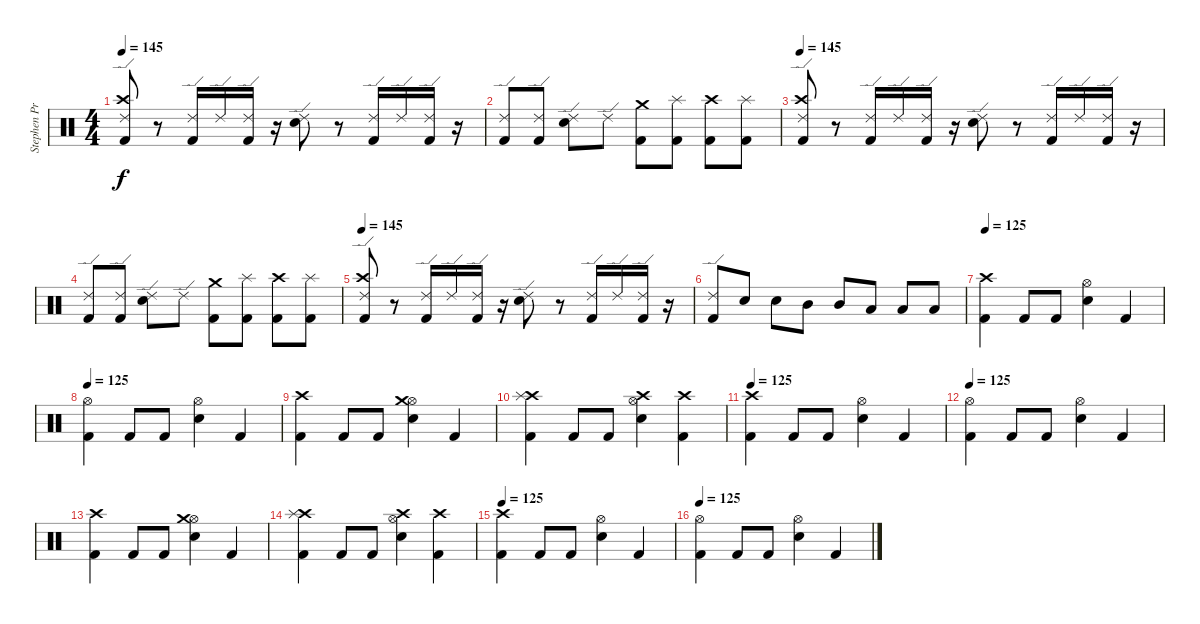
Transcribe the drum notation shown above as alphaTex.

\track ("Stephen Priestly" "Stephen Pr") {instrument percussion}
\staff {score}
\articulation defaults
\ts (4 4)
\tempo 145
\clef neutral
\ks c
("Ride (edge) 2" "Crash high (hit)" "Kick (hit) 2").8{dy f} r.8 ("Ride (edge) 2" "Kick (hit) 2").16 "Ride (edge) 2".16 ("Ride (edge) 2" "Kick (hit) 2").16 r.16 ("Ride (edge) 2" "Snare (hit) 2").8 r.8 ("Ride (edge) 2" "Kick (hit) 2").16 "Ride (edge) 2".16 ("Ride (edge) 2" "Kick (hit) 2").16 r.16 |
("Ride (edge) 2" "Kick (hit) 2").8 ("Ride (edge) 2" "Kick (hit) 2").8 ("Ride (edge) 2" "Snare (hit) 2").8 "Ride (edge) 2".8 ("Crash medium (hit)" "Kick (hit) 2").8 ("Splash (hit)" "Kick (hit) 2").8 ("Crash high (hit)" "Kick (hit) 2").8 ("Splash (hit)" "Kick (hit) 2").8 |
\tempo 145
("Ride (edge) 2" "Crash high (hit)" "Kick (hit) 2").8 r.8 ("Ride (edge) 2" "Kick (hit) 2").16 "Ride (edge) 2".16 ("Ride (edge) 2" "Kick (hit) 2").16 r.16 ("Ride (edge) 2" "Snare (hit) 2").8 r.8 ("Ride (edge) 2" "Kick (hit) 2").16 "Ride (edge) 2".16 ("Ride (edge) 2" "Kick (hit) 2").16 r.16 |
("Ride (edge) 2" "Kick (hit) 2").8 ("Ride (edge) 2" "Kick (hit) 2").8 ("Ride (edge) 2" "Snare (hit) 2").8 "Ride (edge) 2".8 ("Crash medium (hit)" "Kick (hit) 2").8 ("Splash (hit)" "Kick (hit) 2").8 ("Crash high (hit)" "Kick (hit) 2").8 ("Splash (hit)" "Kick (hit) 2").8 |
\tempo 145
("Ride (edge) 2" "Crash high (hit)" "Kick (hit) 2").8 r.8 ("Ride (edge) 2" "Kick (hit) 2").16 "Ride (edge) 2".16 ("Ride (edge) 2" "Kick (hit) 2").16 r.16 ("Ride (edge) 2" "Snare (hit) 2").8 r.8 ("Ride (edge) 2" "Kick (hit) 2").16 "Ride (edge) 2".16 ("Ride (edge) 2" "Kick (hit) 2").16 r.16 |
("Ride (edge) 2" "Kick (hit) 2").8 "Snare (hit) 2".8 "Snare (hit) 2".8 "Mid Tom (hit)".8 "Mid Tom (hit)".8 "Low Tom (hit)".8 "Low Tom (hit)".8 "Low Tom (hit)".8 |
\tempo 125
("Crash high (hit)" "Kick (hit) 2").4 "Kick (hit) 2".8 "Kick (hit) 2".8 ("Hi-Hat (open)" "Snare (hit) 2").4 "Kick (hit) 2".4 |
\tempo 125
("Hi-Hat (open)" "Kick (hit) 2").4 "Kick (hit) 2".8 "Kick (hit) 2".8 ("Hi-Hat (open)" "Snare (hit) 2").4 "Kick (hit) 2".4 |
("Crash high (hit)" "Kick (hit) 2").4 "Kick (hit) 2".8 "Kick (hit) 2".8 ("Hi-Hat (open)" "Crash medium (hit)" "Snare (hit) 2").4 "Kick (hit) 2".4 |
("Crash high (hit)" "Splash (hit)" "Kick (hit) 2").4 "Kick (hit) 2".8 "Kick (hit) 2".8 ("Hi-Hat (open)" "Crash high (hit)" "Snare (hit) 2").4 ("Crash high (hit)" "Kick (hit) 2").4 |
\tempo 125
("Crash high (hit)" "Kick (hit) 2").4 "Kick (hit) 2".8 "Kick (hit) 2".8 ("Hi-Hat (open)" "Snare (hit) 2").4 "Kick (hit) 2".4 |
\tempo 125
("Hi-Hat (open)" "Kick (hit) 2").4 "Kick (hit) 2".8 "Kick (hit) 2".8 ("Hi-Hat (open)" "Snare (hit) 2").4 "Kick (hit) 2".4 |
("Crash high (hit)" "Kick (hit) 2").4 "Kick (hit) 2".8 "Kick (hit) 2".8 ("Hi-Hat (open)" "Crash medium (hit)" "Snare (hit) 2").4 "Kick (hit) 2".4 |
("Crash high (hit)" "Splash (hit)" "Kick (hit) 2").4 "Kick (hit) 2".8 "Kick (hit) 2".8 ("Hi-Hat (open)" "Crash high (hit)" "Snare (hit) 2").4 ("Crash high (hit)" "Kick (hit) 2").4 |
\tempo 125
("Crash high (hit)" "Kick (hit) 2").4 "Kick (hit) 2".8 "Kick (hit) 2".8 ("Hi-Hat (open)" "Snare (hit) 2").4 "Kick (hit) 2".4 |
\tempo 125
("Hi-Hat (open)" "Kick (hit) 2").4 "Kick (hit) 2".8 "Kick (hit) 2".8 ("Hi-Hat (open)" "Snare (hit) 2").4 "Kick (hit) 2".4
